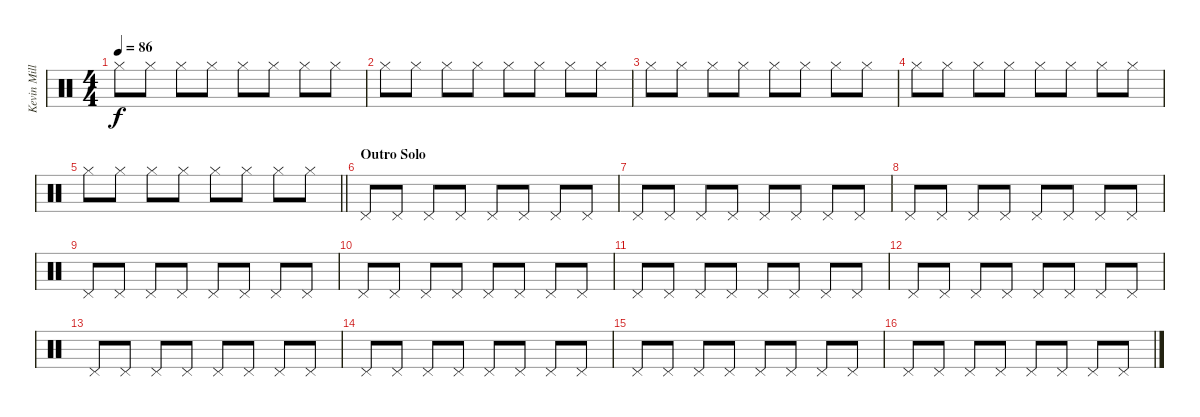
\track ("Kevin Miller (Drums)" "Kevin Mill") {instrument percussion}
\staff {score}
\articulation defaults
\ts (4 4)
\tempo 86
\clef neutral
\ks c "Hi-Hat (closed)".8{dy f} "Hi-Hat (closed)".8 "Hi-Hat (closed)".8 "Hi-Hat (closed)".8 "Hi-Hat (closed)".8 "Hi-Hat (closed)".8 "Hi-Hat (closed)".8 "Hi-Hat (closed)".8
|
"Hi-Hat (closed)".8 "Hi-Hat (closed)".8 "Hi-Hat (closed)".8 "Hi-Hat (closed)".8 "Hi-Hat (closed)".8 "Hi-Hat (closed)".8 "Hi-Hat (closed)".8 "Hi-Hat (closed)".8 |
"Hi-Hat (closed)".8 "Hi-Hat (closed)".8 "Hi-Hat (closed)".8 "Hi-Hat (closed)".8 "Hi-Hat (closed)".8 "Hi-Hat (closed)".8 "Hi-Hat (closed)".8 "Hi-Hat (closed)".8 |
"Hi-Hat (closed)".8 "Hi-Hat (closed)".8 "Hi-Hat (closed)".8 "Hi-Hat (closed)".8 "Hi-Hat (closed)".8 "Hi-Hat (closed)".8 "Hi-Hat (closed)".8 "Hi-Hat (closed)".8 |
\barLineRight lightlight "Hi-Hat (closed)".8 "Hi-Hat (closed)".8 "Hi-Hat (closed)".8 "Hi-Hat (closed)".8 "Hi-Hat (closed)".8 "Hi-Hat (closed)".8 "Hi-Hat (closed)".8 "Hi-Hat (closed)".8
|
\section ("" "Outro Solo")
"Pedal Hi-Hat (hit)".8 "Pedal Hi-Hat (hit)".8 "Pedal Hi-Hat (hit)".8 "Pedal Hi-Hat (hit)".8 "Pedal Hi-Hat (hit)".8 "Pedal Hi-Hat (hit)".8 "Pedal Hi-Hat (hit)".8 "Pedal Hi-Hat (hit)".8 |
"Pedal Hi-Hat (hit)".8 "Pedal Hi-Hat (hit)".8 "Pedal Hi-Hat (hit)".8 "Pedal Hi-Hat (hit)".8 "Pedal Hi-Hat (hit)".8 "Pedal Hi-Hat (hit)".8 "Pedal Hi-Hat (hit)".8 "Pedal Hi-Hat (hit)".8 |
"Pedal Hi-Hat (hit)".8 "Pedal Hi-Hat (hit)".8 "Pedal Hi-Hat (hit)".8 "Pedal Hi-Hat (hit)".8 "Pedal Hi-Hat (hit)".8 "Pedal Hi-Hat (hit)".8 "Pedal Hi-Hat (hit)".8 "Pedal Hi-Hat (hit)".8 |
"Pedal Hi-Hat (hit)".8 "Pedal Hi-Hat (hit)".8 "Pedal Hi-Hat (hit)".8 "Pedal Hi-Hat (hit)".8 "Pedal Hi-Hat (hit)".8 "Pedal Hi-Hat (hit)".8 "Pedal Hi-Hat (hit)".8 "Pedal Hi-Hat (hit)".8 |
"Pedal Hi-Hat (hit)".8 "Pedal Hi-Hat (hit)".8 "Pedal Hi-Hat (hit)".8 "Pedal Hi-Hat (hit)".8 "Pedal Hi-Hat (hit)".8 "Pedal Hi-Hat (hit)".8 "Pedal Hi-Hat (hit)".8 "Pedal Hi-Hat (hit)".8 |
"Pedal Hi-Hat (hit)".8 "Pedal Hi-Hat (hit)".8 "Pedal Hi-Hat (hit)".8 "Pedal Hi-Hat (hit)".8 "Pedal Hi-Hat (hit)".8 "Pedal Hi-Hat (hit)".8 "Pedal Hi-Hat (hit)".8 "Pedal Hi-Hat (hit)".8 |
"Pedal Hi-Hat (hit)".8 "Pedal Hi-Hat (hit)".8 "Pedal Hi-Hat (hit)".8 "Pedal Hi-Hat (hit)".8 "Pedal Hi-Hat (hit)".8 "Pedal Hi-Hat (hit)".8 "Pedal Hi-Hat (hit)".8 "Pedal Hi-Hat (hit)".8 |
"Pedal Hi-Hat (hit)".8 "Pedal Hi-Hat (hit)".8 "Pedal Hi-Hat (hit)".8 "Pedal Hi-Hat (hit)".8 "Pedal Hi-Hat (hit)".8 "Pedal Hi-Hat (hit)".8 "Pedal Hi-Hat (hit)".8 "Pedal Hi-Hat (hit)".8 |
"Pedal Hi-Hat (hit)".8 "Pedal Hi-Hat (hit)".8 "Pedal Hi-Hat (hit)".8 "Pedal Hi-Hat (hit)".8 "Pedal Hi-Hat (hit)".8 "Pedal Hi-Hat (hit)".8 "Pedal Hi-Hat (hit)".8 "Pedal Hi-Hat (hit)".8 |
"Pedal Hi-Hat (hit)".8 "Pedal Hi-Hat (hit)".8 "Pedal Hi-Hat (hit)".8 "Pedal Hi-Hat (hit)".8 "Pedal Hi-Hat (hit)".8 "Pedal Hi-Hat (hit)".8 "Pedal Hi-Hat (hit)".8 "Pedal Hi-Hat (hit)".8 |
"Pedal Hi-Hat (hit)".8 "Pedal Hi-Hat (hit)".8 "Pedal Hi-Hat (hit)".8 "Pedal Hi-Hat (hit)".8 "Pedal Hi-Hat (hit)".8 "Pedal Hi-Hat (hit)".8 "Pedal Hi-Hat (hit)".8 "Pedal Hi-Hat (hit)".8
